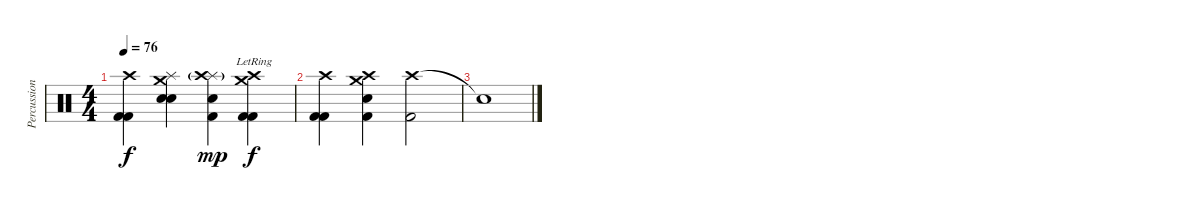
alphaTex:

\track ("Percussion" "Percussion") {instrument percussion}
\staff {score}
\articulation defaults
\ts (4 4)
\tempo 76
\clef neutral
\ks c
("Crash high (hit)" "Kick (hit) 2" "Kick (hit) 2").4{dy f} ("Splash (hit)" "Crash medium (hit)" "Electric Snare (hit)" "Electric Snare (hit)").4 ("Splash (hit)" "Crash high (hit)"{g} "Electric Snare (hit)" "Kick (hit) 2").4{dy mp} ("Crash medium (hit)" "Crash high (hit)"{lr} "Kick (hit) 2" "Kick (hit) 2").4{dy f} |
("Crash high (hit)" "Kick (hit) 2" "Kick (hit) 2").4 ("Crash high (hit)" "Crash medium (hit)" "Kick (hit) 2" "Electric Snare (hit)").4 ("Crash high (hit)"{tr (57 32)} "Kick (hit) 2").2{volume 1} |
"Snare (hit)"{t}.1
